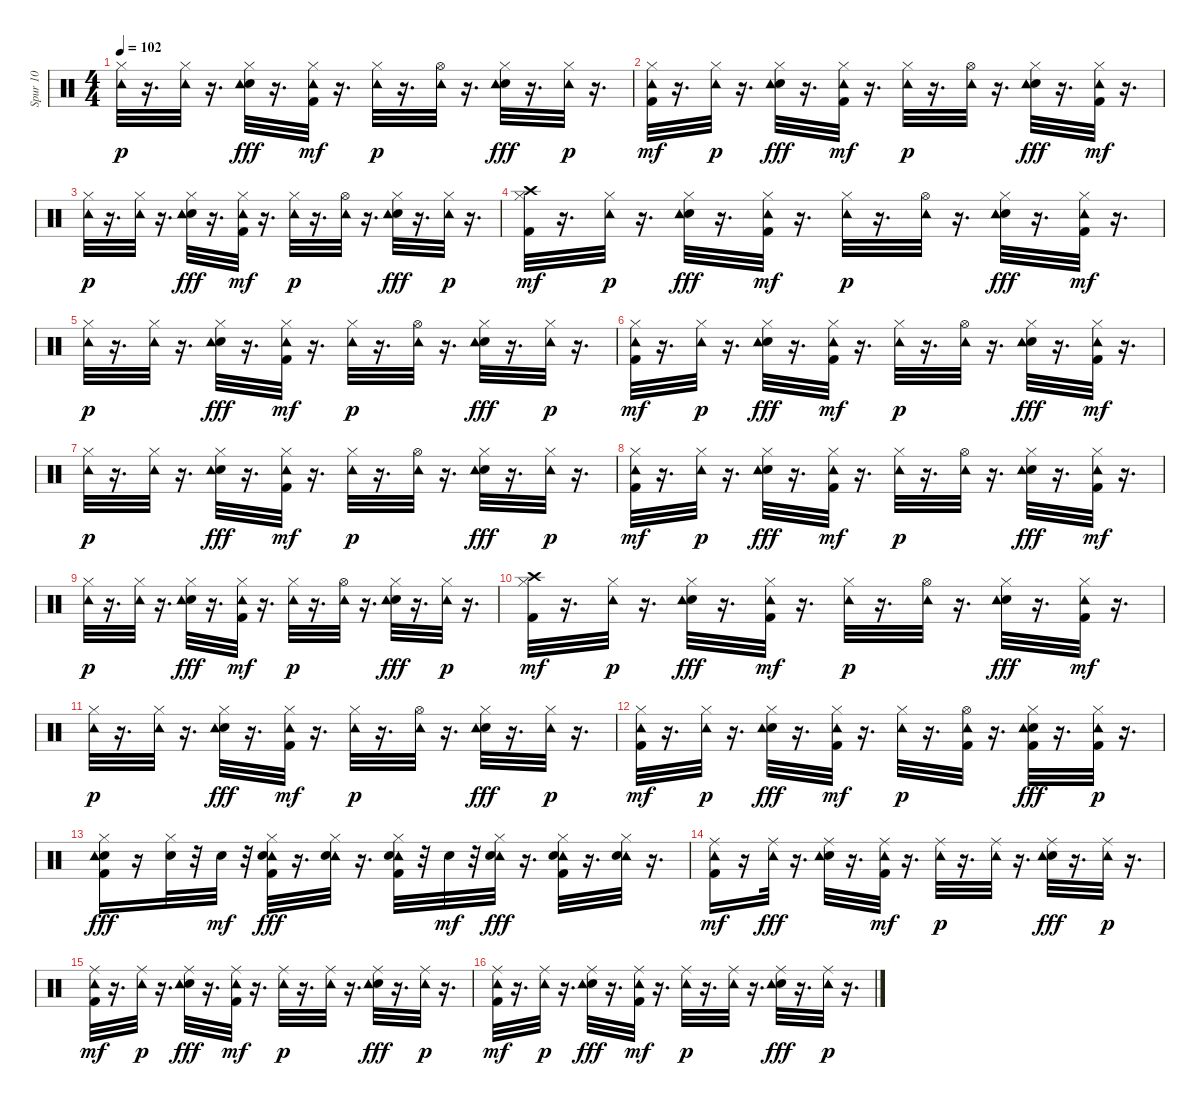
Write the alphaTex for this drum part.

\track ("Spur 10" "Spur 10") {instrument percussion}
\staff {score}
\articulation defaults
\ts (4 4)
\tempo 102
\clef neutral
\ks c
("Hi-Hat (closed)" "Tambourine (hit)").32{dy p} r.16{d} ("Hi-Hat (closed)" "Tambourine (hit)").32 r.16{d} ("Electric Snare (hit)" "Tambourine (hit)" "Hi-Hat (closed)").32{dy fff} r.16{d} ("Hi-Hat (closed)" "Tambourine (hit)" "Kick (hit) 2").32{dy mf} r.16{d} ("Hi-Hat (closed)" "Tambourine (hit)").32{dy p} r.16{d} ("Hi-Hat (open)" "Tambourine (hit)").32 r.16{d} ("Electric Snare (hit)" "Tambourine (hit)" "Hi-Hat (closed)").32{dy fff} r.16{d} ("Hi-Hat (closed)" "Tambourine (hit)").32{dy p} r.16{d} |
("Hi-Hat (closed)" "Tambourine (hit)" "Kick (hit) 2").32{dy mf} r.16{d} ("Hi-Hat (closed)" "Tambourine (hit)").32{dy p} r.16{d} ("Electric Snare (hit)" "Tambourine (hit)" "Hi-Hat (closed)").32{dy fff} r.16{d} ("Hi-Hat (closed)" "Tambourine (hit)" "Kick (hit) 2").32{dy mf} r.16{d} ("Hi-Hat (closed)" "Tambourine (hit)").32{dy p} r.16{d} ("Hi-Hat (open)" "Tambourine (hit)").32 r.16{d} ("Electric Snare (hit)" "Tambourine (hit)" "Hi-Hat (closed)").32{dy fff} r.16{d} ("Hi-Hat (closed)" "Tambourine (hit)" "Kick (hit) 2").32{dy mf} r.16{d} |
("Hi-Hat (closed)" "Tambourine (hit)").32{dy p} r.16{d} ("Hi-Hat (closed)" "Tambourine (hit)").32 r.16{d} ("Electric Snare (hit)" "Tambourine (hit)" "Hi-Hat (closed)").32{dy fff} r.16{d} ("Hi-Hat (closed)" "Tambourine (hit)" "Kick (hit) 2").32{dy mf} r.16{d} ("Hi-Hat (closed)" "Tambourine (hit)").32{dy p} r.16{d} ("Hi-Hat (open)" "Tambourine (hit)").32 r.16{d} ("Electric Snare (hit)" "Tambourine (hit)" "Hi-Hat (closed)").32{dy fff} r.16{d} ("Hi-Hat (closed)" "Tambourine (hit)").32{dy p} r.16{d} |
("Hi-Hat (closed)" "Crash high (hit)" "Kick (hit) 2").32{dy mf} r.16{d} ("Hi-Hat (closed)" "Tambourine (hit)").32{dy p} r.16{d} ("Electric Snare (hit)" "Tambourine (hit)" "Hi-Hat (closed)").32{dy fff} r.16{d} ("Hi-Hat (closed)" "Tambourine (hit)" "Kick (hit) 2").32{dy mf} r.16{d} ("Hi-Hat (closed)" "Tambourine (hit)").32{dy p} r.16{d} ("Hi-Hat (open)" "Tambourine (hit)").32 r.16{d} ("Electric Snare (hit)" "Tambourine (hit)" "Hi-Hat (closed)").32{dy fff} r.16{d} ("Hi-Hat (closed)" "Tambourine (hit)" "Kick (hit) 2").32{dy mf} r.16{d} |
("Hi-Hat (closed)" "Tambourine (hit)").32{dy p} r.16{d} ("Hi-Hat (closed)" "Tambourine (hit)").32 r.16{d} ("Electric Snare (hit)" "Tambourine (hit)" "Hi-Hat (closed)").32{dy fff} r.16{d} ("Hi-Hat (closed)" "Tambourine (hit)" "Kick (hit) 2").32{dy mf} r.16{d} ("Hi-Hat (closed)" "Tambourine (hit)").32{dy p} r.16{d} ("Hi-Hat (open)" "Tambourine (hit)").32 r.16{d} ("Electric Snare (hit)" "Tambourine (hit)" "Hi-Hat (closed)").32{dy fff} r.16{d} ("Hi-Hat (closed)" "Tambourine (hit)").32{dy p} r.16{d} |
("Hi-Hat (closed)" "Tambourine (hit)" "Kick (hit) 2").32{dy mf} r.16{d} ("Hi-Hat (closed)" "Tambourine (hit)").32{dy p} r.16{d} ("Electric Snare (hit)" "Tambourine (hit)" "Hi-Hat (closed)").32{dy fff} r.16{d} ("Hi-Hat (closed)" "Tambourine (hit)" "Kick (hit) 2").32{dy mf} r.16{d} ("Hi-Hat (closed)" "Tambourine (hit)").32{dy p} r.16{d} ("Hi-Hat (open)" "Tambourine (hit)").32 r.16{d} ("Electric Snare (hit)" "Tambourine (hit)" "Hi-Hat (closed)").32{dy fff} r.16{d} ("Hi-Hat (closed)" "Tambourine (hit)" "Kick (hit) 2").32{dy mf} r.16{d} |
("Hi-Hat (closed)" "Tambourine (hit)").32{dy p} r.16{d} ("Hi-Hat (closed)" "Tambourine (hit)").32 r.16{d} ("Electric Snare (hit)" "Tambourine (hit)" "Hi-Hat (closed)").32{dy fff} r.16{d} ("Hi-Hat (closed)" "Tambourine (hit)" "Kick (hit) 2").32{dy mf} r.16{d} ("Hi-Hat (closed)" "Tambourine (hit)").32{dy p} r.16{d} ("Hi-Hat (open)" "Tambourine (hit)").32 r.16{d} ("Electric Snare (hit)" "Tambourine (hit)" "Hi-Hat (closed)").32{dy fff} r.16{d} ("Hi-Hat (closed)" "Tambourine (hit)").32{dy p} r.16{d} |
("Hi-Hat (closed)" "Tambourine (hit)" "Kick (hit) 2").32{dy mf} r.16{d} ("Hi-Hat (closed)" "Tambourine (hit)").32{dy p} r.16{d} ("Electric Snare (hit)" "Tambourine (hit)" "Hi-Hat (closed)").32{dy fff} r.16{d} ("Hi-Hat (closed)" "Tambourine (hit)" "Kick (hit) 2").32{dy mf} r.16{d} ("Hi-Hat (closed)" "Tambourine (hit)").32{dy p} r.16{d} ("Hi-Hat (open)" "Tambourine (hit)").32 r.16{d} ("Electric Snare (hit)" "Tambourine (hit)" "Hi-Hat (closed)").32{dy fff} r.16{d} ("Hi-Hat (closed)" "Tambourine (hit)" "Kick (hit) 2").32{dy mf} r.16{d} |
("Hi-Hat (closed)" "Tambourine (hit)").32{dy p} r.16{d} ("Hi-Hat (closed)" "Tambourine (hit)").32 r.16{d} ("Electric Snare (hit)" "Tambourine (hit)" "Hi-Hat (closed)").32{dy fff} r.16{d} ("Hi-Hat (closed)" "Tambourine (hit)" "Kick (hit) 2").32{dy mf} r.16{d} ("Hi-Hat (closed)" "Tambourine (hit)").32{dy p} r.16{d} ("Hi-Hat (open)" "Tambourine (hit)").32 r.16{d} ("Electric Snare (hit)" "Tambourine (hit)" "Hi-Hat (closed)").32{dy fff} r.16{d} ("Hi-Hat (closed)" "Tambourine (hit)").32{dy p} r.16{d} |
("Hi-Hat (closed)" "Crash high (hit)" "Kick (hit) 2").32{dy mf} r.16{d} ("Hi-Hat (closed)" "Tambourine (hit)").32{dy p} r.16{d} ("Electric Snare (hit)" "Tambourine (hit)" "Hi-Hat (closed)").32{dy fff} r.16{d} ("Hi-Hat (closed)" "Tambourine (hit)" "Kick (hit) 2").32{dy mf} r.16{d} ("Hi-Hat (closed)" "Tambourine (hit)").32{dy p} r.16{d} ("Hi-Hat (open)" "Tambourine (hit)").32 r.16{d} ("Electric Snare (hit)" "Tambourine (hit)" "Hi-Hat (closed)").32{dy fff} r.16{d} ("Hi-Hat (closed)" "Tambourine (hit)" "Kick (hit) 2").32{dy mf} r.16{d} |
("Hi-Hat (closed)" "Tambourine (hit)").32{dy p} r.16{d} ("Hi-Hat (closed)" "Tambourine (hit)").32 r.16{d} ("Electric Snare (hit)" "Tambourine (hit)" "Hi-Hat (closed)").32{dy fff} r.16{d} ("Hi-Hat (closed)" "Tambourine (hit)" "Kick (hit) 2").32{dy mf} r.16{d} ("Hi-Hat (closed)" "Tambourine (hit)").32{dy p} r.16{d} ("Hi-Hat (open)" "Tambourine (hit)").32 r.16{d} ("Electric Snare (hit)" "Tambourine (hit)" "Hi-Hat (closed)").32{dy fff} r.16{d} ("Hi-Hat (closed)" "Tambourine (hit)").32{dy p} r.16{d} |
("Hi-Hat (closed)" "Tambourine (hit)" "Kick (hit) 2").32{dy mf} r.16{d} ("Hi-Hat (closed)" "Tambourine (hit)").32{dy p} r.16{d} ("Electric Snare (hit)" "Tambourine (hit)" "Hi-Hat (closed)").32{dy fff} r.16{d} ("Hi-Hat (closed)" "Tambourine (hit)" "Kick (hit) 2").32{dy mf} r.16{d} ("Hi-Hat (closed)" "Tambourine (hit)").32{dy p} r.16{d} ("Kick (hit) 2" "Hi-Hat (open)" "Tambourine (hit)").32 r.16{d} ("Kick (hit) 2" "Electric Snare (hit)" "Tambourine (hit)" "Hi-Hat (closed)").32{dy fff} r.16{d} ("Kick (hit) 2" "Hi-Hat (closed)" "Tambourine (hit)").32{dy p} r.16{d} |
("Electric Snare (hit)" "Kick (hit) 2" "Tambourine (hit)" "Hi-Hat (closed)").16{dy fff} r.16 ("Electric Snare (hit)" "Hi-Hat (closed)").32 r.32 "Electric Snare (hit)".32{dy mf} r.32 ("Kick (hit) 2" "Tambourine (hit)" "Electric Snare (hit)" "Hi-Hat (closed)").32{dy fff} r.16{d} ("Tambourine (hit)" "Electric Snare (hit)" "Hi-Hat (closed)").32 r.16{d} ("Kick (hit) 2" "Tambourine (hit)" "Electric Snare (hit)" "Hi-Hat (closed)").32 r.32 "Electric Snare (hit)".32{dy mf} r.32 ("Tambourine (hit)" "Electric Snare (hit)" "Hi-Hat (closed)").32{dy fff} r.16{d} ("Kick (hit) 2" "Tambourine (hit)" "Electric Snare (hit)" "Hi-Hat (closed)").32 r.16{d} ("Tambourine (hit)" "Electric Snare (hit)" "Hi-Hat (closed)").32 r.16{d} |
("Ride (middle)" "Tambourine (hit)" "Kick (hit) 2").16{dy mf} r.16 ("Tambourine (hit)" "Ride (middle)").32{dy fff} r.16{d} ("Electric Snare (hit)" "Tambourine (hit)" "Ride (middle)").32 r.16{d} ("Ride (middle)" "Tambourine (hit)" "Kick (hit) 2").32{dy mf} r.16{d} ("Ride (middle)" "Tambourine (hit)").32{dy p} r.16{d} ("Ride (middle)" "Tambourine (hit)").32 r.16{d} ("Electric Snare (hit)" "Tambourine (hit)" "Ride (middle)").32{dy fff} r.16{d} ("Ride (middle)" "Tambourine (hit)").32{dy p} r.16{d} |
("Ride (middle)" "Tambourine (hit)" "Kick (hit) 2").32{dy mf} r.16{d} ("Ride (middle)" "Tambourine (hit)").32{dy p} r.16{d} ("Electric Snare (hit)" "Tambourine (hit)" "Ride (middle)").32{dy fff} r.16{d} ("Ride (middle)" "Tambourine (hit)" "Kick (hit) 2").32{dy mf} r.16{d} ("Ride (middle)" "Tambourine (hit)").32{dy p} r.16{d} ("Ride (middle)" "Tambourine (hit)").32 r.16{d} ("Electric Snare (hit)" "Tambourine (hit)" "Ride (middle)").32{dy fff} r.16{d} ("Ride (middle)" "Tambourine (hit)").32{dy p} r.16{d} |
("Ride (middle)" "Tambourine (hit)" "Kick (hit) 2").32{dy mf} r.16{d} ("Ride (middle)" "Tambourine (hit)").32{dy p} r.16{d} ("Electric Snare (hit)" "Tambourine (hit)" "Ride (middle)").32{dy fff} r.16{d} ("Ride (middle)" "Tambourine (hit)" "Kick (hit) 2").32{dy mf} r.16{d} ("Ride (middle)" "Tambourine (hit)").32{dy p} r.16{d} ("Ride (middle)" "Tambourine (hit)").32 r.16{d} ("Electric Snare (hit)" "Tambourine (hit)" "Ride (middle)").32{dy fff} r.16{d} ("Ride (middle)" "Tambourine (hit)").32{dy p} r.16{d}
